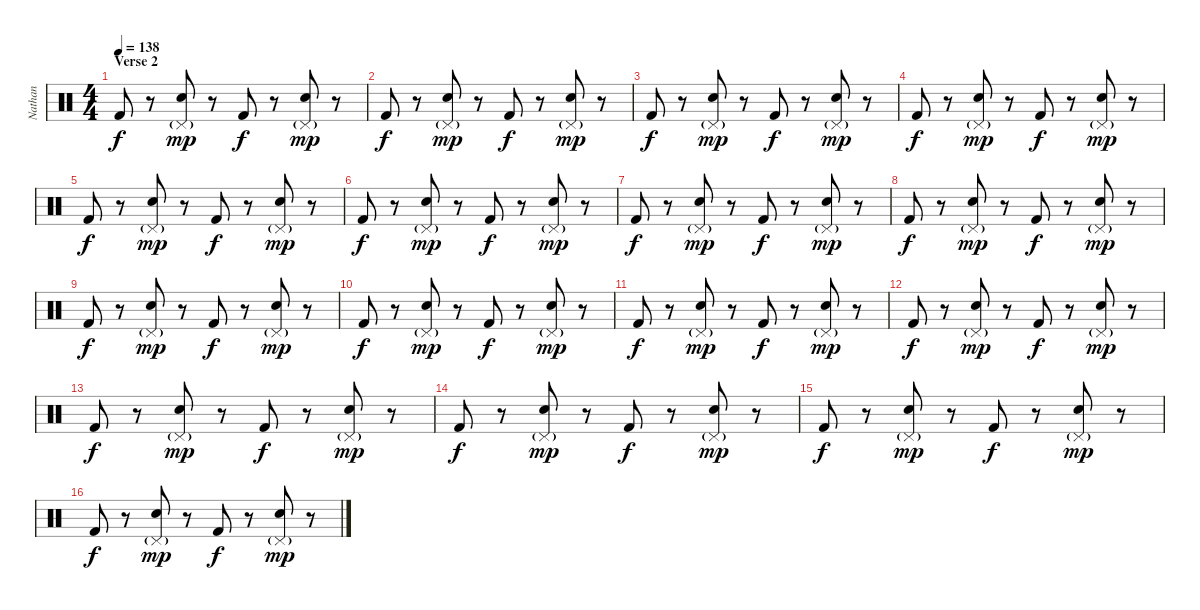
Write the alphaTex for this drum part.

\track ("Nathan" "Nathan") {instrument percussion}
\staff {score}
\articulation defaults
\ts (4 4)
\section ("" "Verse 2")
\tempo 138
\clef neutral
\ks c "Kick (hit) 2".8{dy f}
r.8 ("Pedal Hi-Hat (hit)"{g} "Electric Snare (hit)").8{dy mp} r.8 "Kick (hit) 2".8{dy f} r.8 ("Pedal Hi-Hat (hit)"{g} "Electric Snare (hit)").8{dy mp} r.8 |
"Kick (hit) 2".8{dy f} r.8 ("Pedal Hi-Hat (hit)"{g} "Electric Snare (hit)").8{dy mp} r.8 "Kick (hit) 2".8{dy f} r.8 ("Pedal Hi-Hat (hit)"{g} "Electric Snare (hit)").8{dy mp} r.8 |
"Kick (hit) 2".8{dy f} r.8 ("Pedal Hi-Hat (hit)"{g} "Electric Snare (hit)").8{dy mp} r.8 "Kick (hit) 2".8{dy f} r.8 ("Pedal Hi-Hat (hit)"{g} "Electric Snare (hit)").8{dy mp} r.8 |
"Kick (hit) 2".8{dy f} r.8 ("Pedal Hi-Hat (hit)"{g} "Electric Snare (hit)").8{dy mp} r.8 "Kick (hit) 2".8{dy f} r.8 ("Pedal Hi-Hat (hit)"{g} "Electric Snare (hit)").8{dy mp} r.8 |
"Kick (hit) 2".8{dy f} r.8 ("Pedal Hi-Hat (hit)"{g} "Electric Snare (hit)").8{dy mp} r.8 "Kick (hit) 2".8{dy f} r.8 ("Pedal Hi-Hat (hit)"{g} "Electric Snare (hit)").8{dy mp} r.8 |
"Kick (hit) 2".8{dy f} r.8 ("Pedal Hi-Hat (hit)"{g} "Electric Snare (hit)").8{dy mp} r.8 "Kick (hit) 2".8{dy f} r.8 ("Pedal Hi-Hat (hit)"{g} "Electric Snare (hit)").8{dy mp} r.8 |
"Kick (hit) 2".8{dy f} r.8 ("Pedal Hi-Hat (hit)"{g} "Electric Snare (hit)").8{dy mp} r.8 "Kick (hit) 2".8{dy f} r.8 ("Pedal Hi-Hat (hit)"{g} "Electric Snare (hit)").8{dy mp} r.8 |
"Kick (hit) 2".8{dy f} r.8 ("Pedal Hi-Hat (hit)"{g} "Electric Snare (hit)").8{dy mp} r.8 "Kick (hit) 2".8{dy f} r.8 ("Pedal Hi-Hat (hit)"{g} "Electric Snare (hit)").8{dy mp} r.8 |
"Kick (hit) 2".8{dy f} r.8 ("Pedal Hi-Hat (hit)"{g} "Electric Snare (hit)").8{dy mp} r.8 "Kick (hit) 2".8{dy f} r.8 ("Pedal Hi-Hat (hit)"{g} "Electric Snare (hit)").8{dy mp} r.8 |
"Kick (hit) 2".8{dy f} r.8 ("Pedal Hi-Hat (hit)"{g} "Electric Snare (hit)").8{dy mp} r.8 "Kick (hit) 2".8{dy f} r.8 ("Pedal Hi-Hat (hit)"{g} "Electric Snare (hit)").8{dy mp} r.8 |
"Kick (hit) 2".8{dy f} r.8 ("Pedal Hi-Hat (hit)"{g} "Electric Snare (hit)").8{dy mp} r.8 "Kick (hit) 2".8{dy f} r.8 ("Pedal Hi-Hat (hit)"{g} "Electric Snare (hit)").8{dy mp} r.8 |
"Kick (hit) 2".8{dy f} r.8 ("Pedal Hi-Hat (hit)"{g} "Electric Snare (hit)").8{dy mp} r.8 "Kick (hit) 2".8{dy f} r.8 ("Pedal Hi-Hat (hit)"{g} "Electric Snare (hit)").8{dy mp} r.8 |
"Kick (hit) 2".8{dy f} r.8 ("Pedal Hi-Hat (hit)"{g} "Electric Snare (hit)").8{dy mp} r.8 "Kick (hit) 2".8{dy f} r.8 ("Pedal Hi-Hat (hit)"{g} "Electric Snare (hit)").8{dy mp} r.8 |
"Kick (hit) 2".8{dy f} r.8 ("Pedal Hi-Hat (hit)"{g} "Electric Snare (hit)").8{dy mp} r.8 "Kick (hit) 2".8{dy f} r.8 ("Pedal Hi-Hat (hit)"{g} "Electric Snare (hit)").8{dy mp} r.8 |
"Kick (hit) 2".8{dy f} r.8 ("Pedal Hi-Hat (hit)"{g} "Electric Snare (hit)").8{dy mp} r.8 "Kick (hit) 2".8{dy f} r.8 ("Pedal Hi-Hat (hit)"{g} "Electric Snare (hit)").8{dy mp} r.8 |
"Kick (hit) 2".8{dy f} r.8 ("Pedal Hi-Hat (hit)"{g} "Electric Snare (hit)").8{dy mp} r.8 "Kick (hit) 2".8{dy f} r.8 ("Pedal Hi-Hat (hit)"{g} "Electric Snare (hit)").8{dy mp} r.8
